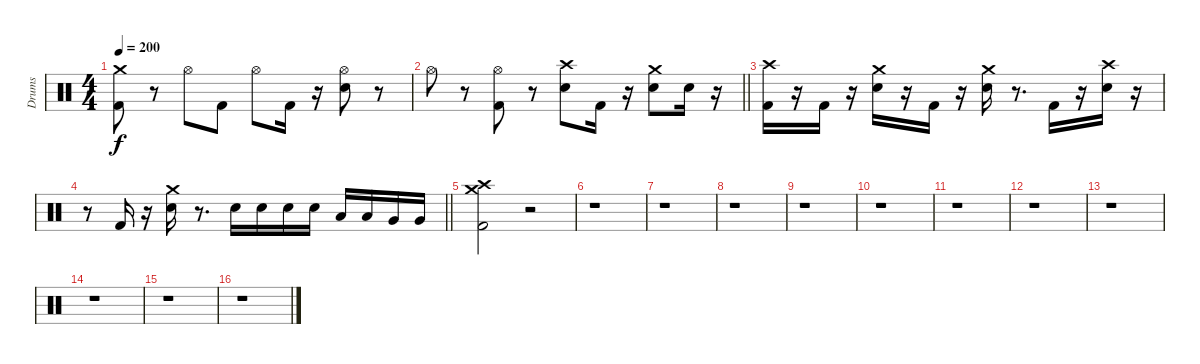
\track ("Drums" "Drums") {instrument percussion}
\staff {score}
\articulation defaults
\ts (4 4)
\tempo 200
\clef neutral
\ks c
("Kick (hit) 2" "Crash medium (hit)").8{dy f} r.8 "Hi-Hat (open)".8 "Kick (hit) 2".8 "Hi-Hat (open)".8 "Kick (hit) 2".16 r.16 ("Snare (hit) 2" "Hi-Hat (open)").8 r.8 |
\barLineRight lightlight "Hi-Hat (open)".8
r.8 ("Kick (hit) 2" "Hi-Hat (open)").8 r.8 ("Snare (hit) 2" "Crash high (hit)").8 "Kick (hit) 2".16 r.16 ("Snare (hit) 2" "Crash medium (hit)").8 "Snare (hit) 2".16 r.16 |
\section ("" " ")
("Kick (hit) 2" "Crash high (hit)").16 r.16 "Kick (hit) 2".16 r.16 ("Snare (hit) 2" "Crash medium (hit)").16 r.16 "Kick (hit) 2".16 r.16 ("Snare (hit) 2" "Crash medium (hit)").16 r.8{d} "Kick (hit) 2".16 r.16 ("Snare (hit) 2" "Crash high (hit)").16 r.16 |
\barLineRight lightlight
r.8 "Kick (hit) 2".16 r.16 ("Snare (hit) 2" "Crash medium (hit)").16 r.8{d} "Snare (hit) 2".16 "Snare (hit) 2".16 "Snare (hit) 2".16 "Snare (hit) 2".16 "Low Tom (hit)".16 "Low Tom (hit)".16 "Very Low Tom (hit)".16 "Very Low Tom (hit)".16 |
\section ("" " ")
("Kick (hit) 2" "Crash high (hit)" "Crash medium (hit)").2 r.2 |
r.1 |
r.1 |
r.1 |
r.1 |
r.1 |
r.1 |
r.1 |
r.1 |
r.1 |
r.1 |
r.1
